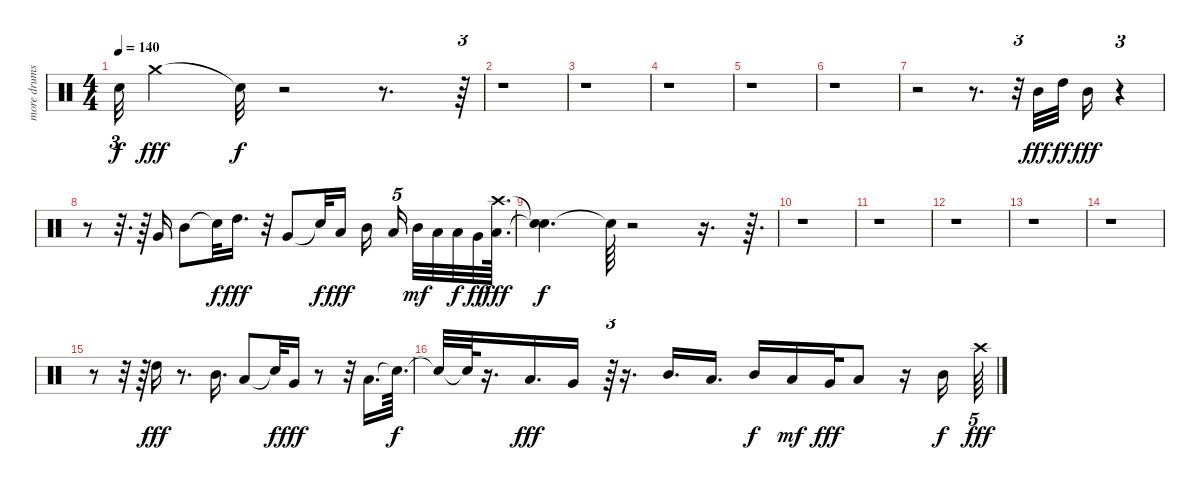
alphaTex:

\track ("more drums" "more drums") {instrument percussion}
\staff {score}
\articulation defaults
\ts (4 4)
\tempo 140
\clef neutral
\ks c "Snare (hit)"{t}.32{tu (3 2) dy f} "Crash medium (hit)".4{dy fff} "Snare (hit)"{t}.32{dy f}
r.2 r.8{d} r.64{tu (3 2)} |
r.1 |
r.1 |
r.1 |
r.1 |
r.1 |
r.2 r.8{d} r.32{tu (3 2)} "Mid Tom (hit)".32{dy fff} "High Tom (hit)".32{dy ff} "Mid Tom (hit)".16{dy fff} r.4{tu (3 2)} |
r.8 r.32{d} r.64 "Very Low Tom (hit)".16 "Mid Tom (hit)".8 "Snare (hit)"{t}.32{dy f} "High Tom (hit)".16{d dy fff} r.32 "Very Low Tom (hit)".8 "Snare (hit)"{t}.32{dy f} "Low Tom (hit)".16{dy fff} "Mid Tom (hit)".16{beam splitsecondary} "Low Tom (hit)".16{tu (5 4) beam splitsecondary} "Mid Tom (hit)".32{dy mf} "Low Tom (hit)".32 "Low Tom (hit)".32{dy f} "Very Low Tom (hit)".32{dy ff} ("Crash high (hit)" "Low Tom (hit)").64{d dy fff} |
("Snare (hit)"{t} "Snare (hit)"{t}).4{d dy f} "Snare (hit)"{t}.64 r.2 r.16{d} r.64{d} |
r.1 |
r.1 |
r.1 |
r.1 |
r.1 |
r.8 r.32 r.64 "High Tom (hit)".16{dy fff} r.8{d} "Mid Tom (hit)".16{d} "Low Tom (hit)".8 "Snare (hit)"{t}.32{dy f} "Very Low Tom (hit)".16{dy fff} r.8 r.32 "Low Tom (hit)".16{d} "Snare (hit)"{t}.64{d dy f} |
"Snare (hit)"{t}.32 "Snare (hit)"{t}.64 r.16{d} "Low Floor Tom (hit)".16{d dy fff} "Very Low Tom (hit)".16 r.64{tu (3 2)} r.16{d} "Mid Tom (hit)".16{d} "Low Tom (hit)".16{d} "Mid Tom (hit)".16{dy f} "Low Tom (hit)".16{dy mf} "Very Low Tom (hit)".32{dy fff} "Low Floor Tom (hit)".8 r.16 "Mid Tom (hit)".16{dy f} "Crash high (hit)".64{tu (5 4) dy fff}
